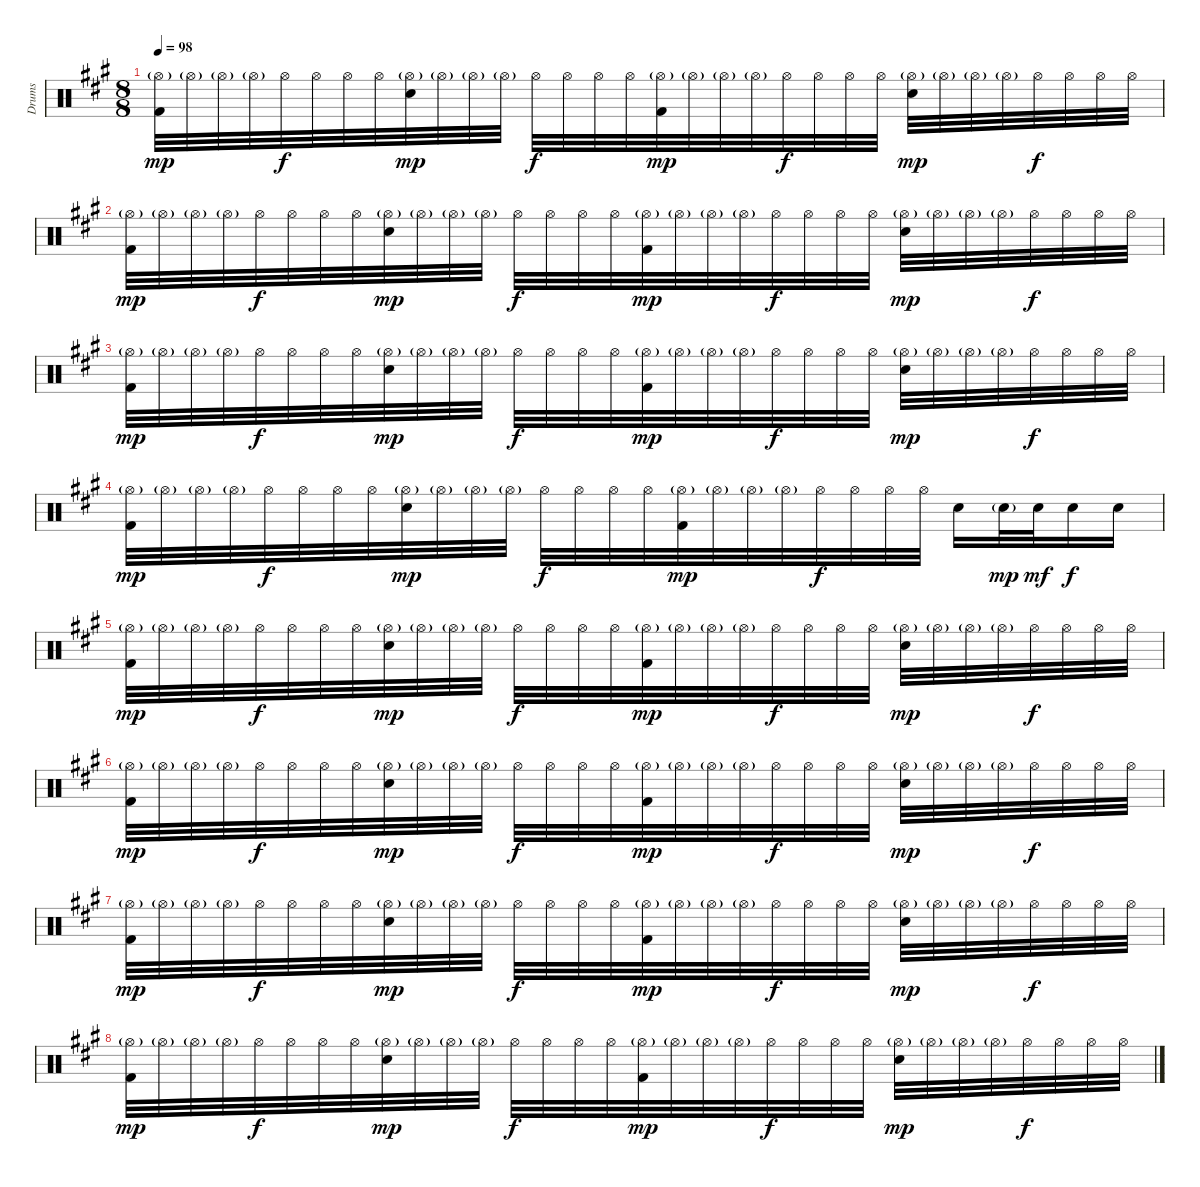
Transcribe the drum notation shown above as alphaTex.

\track ("Drums" "Drums") {instrument percussion}
\staff {score}
\articulation defaults
\ts (8 8)
\tempo 98
\clef neutral
\ks a
("Hi-Hat (open)"{g} "Kick (hit) 2").32{dy mp} "Hi-Hat (open)"{g}.32 "Hi-Hat (open)"{g}.32 "Hi-Hat (open)"{g}.32 "Hi-Hat (open)".32{dy f} "Hi-Hat (open)".32 "Hi-Hat (open)".32 "Hi-Hat (open)".32 ("Hi-Hat (open)"{g} "Snare (hit) 2").32{dy mp} "Hi-Hat (open)"{g}.32 "Hi-Hat (open)"{g}.32 "Hi-Hat (open)"{g}.32 "Hi-Hat (open)".32{dy f} "Hi-Hat (open)".32 "Hi-Hat (open)".32 "Hi-Hat (open)".32 ("Hi-Hat (open)"{g} "Kick (hit) 2").32{dy mp} "Hi-Hat (open)"{g}.32 "Hi-Hat (open)"{g}.32 "Hi-Hat (open)"{g}.32 "Hi-Hat (open)".32{dy f} "Hi-Hat (open)".32 "Hi-Hat (open)".32 "Hi-Hat (open)".32 ("Hi-Hat (open)"{g} "Snare (hit) 2").32{dy mp} "Hi-Hat (open)"{g}.32 "Hi-Hat (open)"{g}.32 "Hi-Hat (open)"{g}.32 "Hi-Hat (open)".32{dy f} "Hi-Hat (open)".32 "Hi-Hat (open)".32 "Hi-Hat (open)".32 |
("Hi-Hat (open)"{g} "Kick (hit) 2").32{dy mp} "Hi-Hat (open)"{g}.32 "Hi-Hat (open)"{g}.32 "Hi-Hat (open)"{g}.32 "Hi-Hat (open)".32{dy f} "Hi-Hat (open)".32 "Hi-Hat (open)".32 "Hi-Hat (open)".32 ("Hi-Hat (open)"{g} "Snare (hit) 2").32{dy mp} "Hi-Hat (open)"{g}.32 "Hi-Hat (open)"{g}.32 "Hi-Hat (open)"{g}.32 "Hi-Hat (open)".32{dy f} "Hi-Hat (open)".32 "Hi-Hat (open)".32 "Hi-Hat (open)".32 ("Hi-Hat (open)"{g} "Kick (hit) 2").32{dy mp} "Hi-Hat (open)"{g}.32 "Hi-Hat (open)"{g}.32 "Hi-Hat (open)"{g}.32 "Hi-Hat (open)".32{dy f} "Hi-Hat (open)".32 "Hi-Hat (open)".32 "Hi-Hat (open)".32 ("Hi-Hat (open)"{g} "Snare (hit) 2").32{dy mp} "Hi-Hat (open)"{g}.32 "Hi-Hat (open)"{g}.32 "Hi-Hat (open)"{g}.32 "Hi-Hat (open)".32{dy f} "Hi-Hat (open)".32 "Hi-Hat (open)".32 "Hi-Hat (open)".32 |
("Hi-Hat (open)"{g} "Kick (hit) 2").32{dy mp} "Hi-Hat (open)"{g}.32 "Hi-Hat (open)"{g}.32 "Hi-Hat (open)"{g}.32 "Hi-Hat (open)".32{dy f} "Hi-Hat (open)".32 "Hi-Hat (open)".32 "Hi-Hat (open)".32 ("Hi-Hat (open)"{g} "Snare (hit) 2").32{dy mp} "Hi-Hat (open)"{g}.32 "Hi-Hat (open)"{g}.32 "Hi-Hat (open)"{g}.32 "Hi-Hat (open)".32{dy f} "Hi-Hat (open)".32 "Hi-Hat (open)".32 "Hi-Hat (open)".32 ("Hi-Hat (open)"{g} "Kick (hit) 2").32{dy mp} "Hi-Hat (open)"{g}.32 "Hi-Hat (open)"{g}.32 "Hi-Hat (open)"{g}.32 "Hi-Hat (open)".32{dy f} "Hi-Hat (open)".32 "Hi-Hat (open)".32 "Hi-Hat (open)".32 ("Hi-Hat (open)"{g} "Snare (hit) 2").32{dy mp} "Hi-Hat (open)"{g}.32 "Hi-Hat (open)"{g}.32 "Hi-Hat (open)"{g}.32 "Hi-Hat (open)".32{dy f} "Hi-Hat (open)".32 "Hi-Hat (open)".32 "Hi-Hat (open)".32 |
("Hi-Hat (open)"{g} "Kick (hit) 2").32{dy mp} "Hi-Hat (open)"{g}.32 "Hi-Hat (open)"{g}.32 "Hi-Hat (open)"{g}.32 "Hi-Hat (open)".32{dy f} "Hi-Hat (open)".32 "Hi-Hat (open)".32 "Hi-Hat (open)".32 ("Hi-Hat (open)"{g} "Snare (hit) 2").32{dy mp} "Hi-Hat (open)"{g}.32 "Hi-Hat (open)"{g}.32 "Hi-Hat (open)"{g}.32 "Hi-Hat (open)".32{dy f} "Hi-Hat (open)".32 "Hi-Hat (open)".32 "Hi-Hat (open)".32 ("Hi-Hat (open)"{g} "Kick (hit) 2").32{dy mp} "Hi-Hat (open)"{g}.32 "Hi-Hat (open)"{g}.32 "Hi-Hat (open)"{g}.32 "Hi-Hat (open)".32{dy f} "Hi-Hat (open)".32 "Hi-Hat (open)".32 "Hi-Hat (open)".32 "Snare (hit) 2".16 "Snare (hit) 2"{g}.32{dy mp} "Snare (hit) 2".32{dy mf} "Snare (hit) 2".16{dy f} "Snare (hit) 2".16 |
("Hi-Hat (open)"{g} "Kick (hit) 2").32{dy mp} "Hi-Hat (open)"{g}.32 "Hi-Hat (open)"{g}.32 "Hi-Hat (open)"{g}.32 "Hi-Hat (open)".32{dy f} "Hi-Hat (open)".32 "Hi-Hat (open)".32 "Hi-Hat (open)".32 ("Hi-Hat (open)"{g} "Snare (hit) 2").32{dy mp} "Hi-Hat (open)"{g}.32 "Hi-Hat (open)"{g}.32 "Hi-Hat (open)"{g}.32 "Hi-Hat (open)".32{dy f} "Hi-Hat (open)".32 "Hi-Hat (open)".32 "Hi-Hat (open)".32 ("Hi-Hat (open)"{g} "Kick (hit) 2").32{dy mp} "Hi-Hat (open)"{g}.32 "Hi-Hat (open)"{g}.32 "Hi-Hat (open)"{g}.32 "Hi-Hat (open)".32{dy f} "Hi-Hat (open)".32 "Hi-Hat (open)".32 "Hi-Hat (open)".32 ("Hi-Hat (open)"{g} "Snare (hit) 2").32{dy mp} "Hi-Hat (open)"{g}.32 "Hi-Hat (open)"{g}.32 "Hi-Hat (open)"{g}.32 "Hi-Hat (open)".32{dy f} "Hi-Hat (open)".32 "Hi-Hat (open)".32 "Hi-Hat (open)".32 |
("Hi-Hat (open)"{g} "Kick (hit) 2").32{dy mp} "Hi-Hat (open)"{g}.32 "Hi-Hat (open)"{g}.32 "Hi-Hat (open)"{g}.32 "Hi-Hat (open)".32{dy f} "Hi-Hat (open)".32 "Hi-Hat (open)".32 "Hi-Hat (open)".32 ("Hi-Hat (open)"{g} "Snare (hit) 2").32{dy mp} "Hi-Hat (open)"{g}.32 "Hi-Hat (open)"{g}.32 "Hi-Hat (open)"{g}.32 "Hi-Hat (open)".32{dy f} "Hi-Hat (open)".32 "Hi-Hat (open)".32 "Hi-Hat (open)".32 ("Hi-Hat (open)"{g} "Kick (hit) 2").32{dy mp} "Hi-Hat (open)"{g}.32 "Hi-Hat (open)"{g}.32 "Hi-Hat (open)"{g}.32 "Hi-Hat (open)".32{dy f} "Hi-Hat (open)".32 "Hi-Hat (open)".32 "Hi-Hat (open)".32 ("Hi-Hat (open)"{g} "Snare (hit) 2").32{dy mp} "Hi-Hat (open)"{g}.32 "Hi-Hat (open)"{g}.32 "Hi-Hat (open)"{g}.32 "Hi-Hat (open)".32{dy f} "Hi-Hat (open)".32 "Hi-Hat (open)".32 "Hi-Hat (open)".32 |
("Hi-Hat (open)"{g} "Kick (hit) 2").32{dy mp} "Hi-Hat (open)"{g}.32 "Hi-Hat (open)"{g}.32 "Hi-Hat (open)"{g}.32 "Hi-Hat (open)".32{dy f} "Hi-Hat (open)".32 "Hi-Hat (open)".32 "Hi-Hat (open)".32 ("Hi-Hat (open)"{g} "Snare (hit) 2").32{dy mp} "Hi-Hat (open)"{g}.32 "Hi-Hat (open)"{g}.32 "Hi-Hat (open)"{g}.32 "Hi-Hat (open)".32{dy f} "Hi-Hat (open)".32 "Hi-Hat (open)".32 "Hi-Hat (open)".32 ("Hi-Hat (open)"{g} "Kick (hit) 2").32{dy mp} "Hi-Hat (open)"{g}.32 "Hi-Hat (open)"{g}.32 "Hi-Hat (open)"{g}.32 "Hi-Hat (open)".32{dy f} "Hi-Hat (open)".32 "Hi-Hat (open)".32 "Hi-Hat (open)".32 ("Hi-Hat (open)"{g} "Snare (hit) 2").32{dy mp} "Hi-Hat (open)"{g}.32 "Hi-Hat (open)"{g}.32 "Hi-Hat (open)"{g}.32 "Hi-Hat (open)".32{dy f} "Hi-Hat (open)".32 "Hi-Hat (open)".32 "Hi-Hat (open)".32 |
("Hi-Hat (open)"{g} "Kick (hit) 2").32{dy mp} "Hi-Hat (open)"{g}.32 "Hi-Hat (open)"{g}.32 "Hi-Hat (open)"{g}.32 "Hi-Hat (open)".32{dy f} "Hi-Hat (open)".32 "Hi-Hat (open)".32 "Hi-Hat (open)".32 ("Hi-Hat (open)"{g} "Snare (hit) 2").32{dy mp} "Hi-Hat (open)"{g}.32 "Hi-Hat (open)"{g}.32 "Hi-Hat (open)"{g}.32 "Hi-Hat (open)".32{dy f} "Hi-Hat (open)".32 "Hi-Hat (open)".32 "Hi-Hat (open)".32 ("Hi-Hat (open)"{g} "Kick (hit) 2").32{dy mp} "Hi-Hat (open)"{g}.32 "Hi-Hat (open)"{g}.32 "Hi-Hat (open)"{g}.32 "Hi-Hat (open)".32{dy f} "Hi-Hat (open)".32 "Hi-Hat (open)".32 "Hi-Hat (open)".32 ("Hi-Hat (open)"{g} "Snare (hit) 2").32{dy mp} "Hi-Hat (open)"{g}.32 "Hi-Hat (open)"{g}.32 "Hi-Hat (open)"{g}.32 "Hi-Hat (open)".32{dy f} "Hi-Hat (open)".32 "Hi-Hat (open)".32 "Hi-Hat (open)".32
